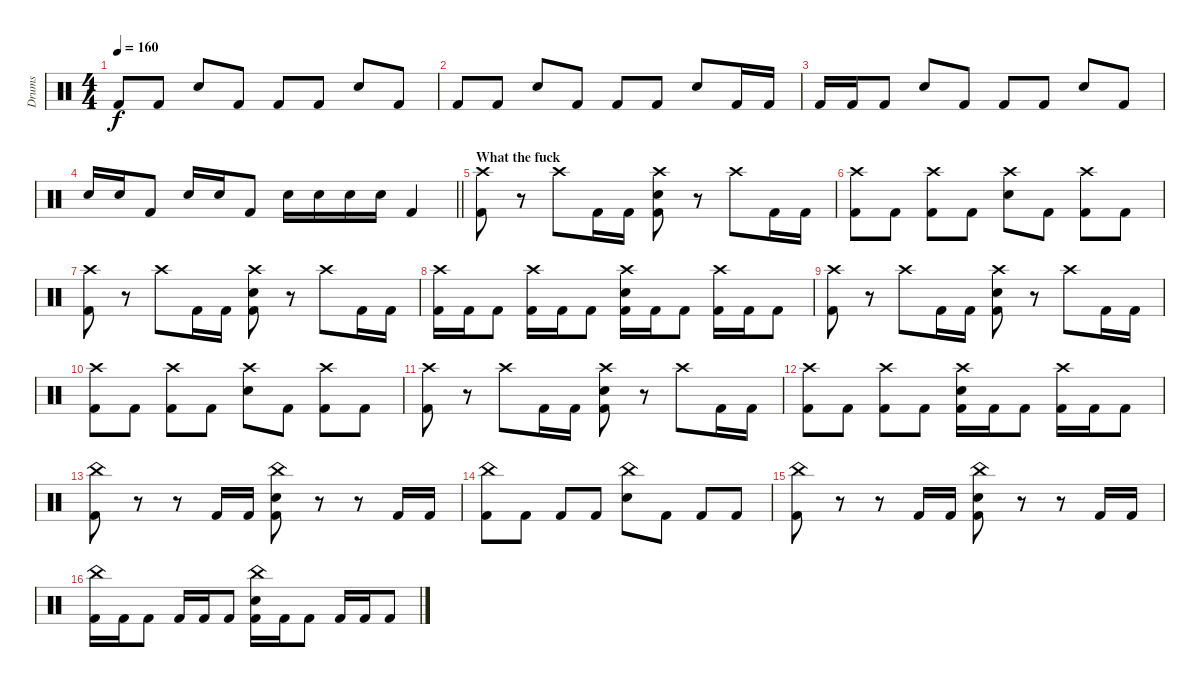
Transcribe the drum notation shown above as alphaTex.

\track ("Drums" "Drums") {instrument percussion}
\staff {score}
\articulation defaults
\ts (4 4)
\tempo 160
\clef neutral
\ks c "Kick (hit) 2".8{dy f} "Kick (hit) 2".8 "Electric Snare (hit)".8 "Kick (hit) 2".8 "Kick (hit) 2".8 "Kick (hit) 2".8 "Electric Snare (hit)".8 "Kick (hit) 2".8
|
"Kick (hit) 2".8 "Kick (hit) 2".8 "Electric Snare (hit)".8 "Kick (hit) 2".8 "Kick (hit) 2".8 "Kick (hit) 2".8 "Electric Snare (hit)".8 "Kick (hit) 2".16 "Kick (hit) 2".16 |
"Kick (hit) 2".16 "Kick (hit) 2".16 "Kick (hit) 2".8 "Electric Snare (hit)".8 "Kick (hit) 2".8 "Kick (hit) 2".8 "Kick (hit) 2".8 "Electric Snare (hit)".8 "Kick (hit) 2".8 |
\barLineRight lightlight "Electric Snare (hit)".16 "Electric Snare (hit)".16 "Kick (hit) 2".8 "Electric Snare (hit)".16 "Electric Snare (hit)".16 "Kick (hit) 2".8 "Electric Snare (hit)".16 "Electric Snare (hit)".16 "Electric Snare (hit)".16 "Electric Snare (hit)".16 "Kick (hit) 2".4
|
\section ("" "What the fuck")
("Crash high (hit)" "Kick (hit) 2").8 r.8 "Crash high (hit)".8 "Kick (hit) 2".16 "Kick (hit) 2".16 ("Crash high (hit)" "Electric Snare (hit)" "Kick (hit) 2").8 r.8 "Crash high (hit)".8 "Kick (hit) 2".16 "Kick (hit) 2".16 |
("Crash high (hit)" "Kick (hit) 2").8 "Kick (hit) 2".8 ("Crash high (hit)" "Kick (hit) 2").8 "Kick (hit) 2".8 ("Crash high (hit)" "Electric Snare (hit)").8 "Kick (hit) 2".8 ("Crash high (hit)" "Kick (hit) 2").8 "Kick (hit) 2".8 |
("Crash high (hit)" "Kick (hit) 2").8 r.8 "Crash high (hit)".8 "Kick (hit) 2".16 "Kick (hit) 2".16 ("Crash high (hit)" "Electric Snare (hit)" "Kick (hit) 2").8 r.8 "Crash high (hit)".8 "Kick (hit) 2".16 "Kick (hit) 2".16 |
("Crash high (hit)" "Kick (hit) 2").16 "Kick (hit) 2".16 "Kick (hit) 2".8 ("Crash high (hit)" "Kick (hit) 2").16 "Kick (hit) 2".16 "Kick (hit) 2".8 ("Crash high (hit)" "Electric Snare (hit)" "Kick (hit) 2").16 "Kick (hit) 2".16 "Kick (hit) 2".8 ("Crash high (hit)" "Kick (hit) 2").16 "Kick (hit) 2".16 "Kick (hit) 2".8 |
("Crash high (hit)" "Kick (hit) 2").8 r.8 "Crash high (hit)".8 "Kick (hit) 2".16 "Kick (hit) 2".16 ("Crash high (hit)" "Electric Snare (hit)" "Kick (hit) 2").8 r.8 "Crash high (hit)".8 "Kick (hit) 2".16 "Kick (hit) 2".16 |
("Crash high (hit)" "Kick (hit) 2").8 "Kick (hit) 2".8 ("Crash high (hit)" "Kick (hit) 2").8 "Kick (hit) 2".8 ("Crash high (hit)" "Electric Snare (hit)").8 "Kick (hit) 2".8 ("Crash high (hit)" "Kick (hit) 2").8 "Kick (hit) 2".8 |
("Crash high (hit)" "Kick (hit) 2").8 r.8 "Crash high (hit)".8 "Kick (hit) 2".16 "Kick (hit) 2".16 ("Crash high (hit)" "Electric Snare (hit)" "Kick (hit) 2").8 r.8 "Crash high (hit)".8 "Kick (hit) 2".16 "Kick (hit) 2".16 |
("Crash high (hit)" "Kick (hit) 2").8 "Kick (hit) 2".8 ("Crash high (hit)" "Kick (hit) 2").8 "Kick (hit) 2".8 ("Crash high (hit)" "Electric Snare (hit)" "Kick (hit) 2").16 "Kick (hit) 2".16 "Kick (hit) 2".8 ("Crash high (hit)" "Kick (hit) 2").16 "Kick (hit) 2".16 "Kick (hit) 2".8 |
("China (hit)" "Kick (hit) 2").8 r.8 r.8 "Kick (hit) 2".16 "Kick (hit) 2".16 ("China (hit)" "Electric Snare (hit)" "Kick (hit) 2").8 r.8 r.8 "Kick (hit) 2".16 "Kick (hit) 2".16 |
("China (hit)" "Kick (hit) 2").8 "Kick (hit) 2".8 "Kick (hit) 2".8 "Kick (hit) 2".8 ("China (hit)" "Electric Snare (hit)").8 "Kick (hit) 2".8 "Kick (hit) 2".8 "Kick (hit) 2".8 |
("China (hit)" "Kick (hit) 2").8 r.8 r.8 "Kick (hit) 2".16 "Kick (hit) 2".16 ("China (hit)" "Electric Snare (hit)" "Kick (hit) 2").8 r.8 r.8 "Kick (hit) 2".16 "Kick (hit) 2".16 |
("China (hit)" "Kick (hit) 2").16 "Kick (hit) 2".16 "Kick (hit) 2".8 "Kick (hit) 2".16 "Kick (hit) 2".16 "Kick (hit) 2".8 ("China (hit)" "Electric Snare (hit)" "Kick (hit) 2").16 "Kick (hit) 2".16 "Kick (hit) 2".8 "Kick (hit) 2".16 "Kick (hit) 2".16 "Kick (hit) 2".8
